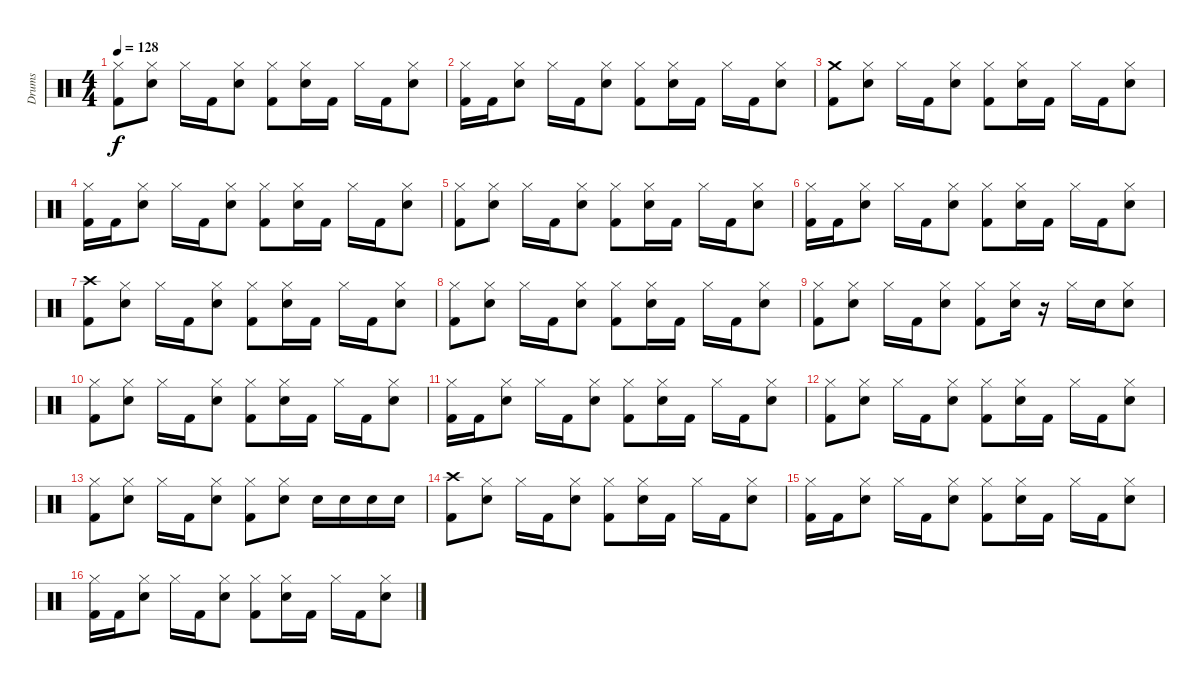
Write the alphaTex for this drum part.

\track ("Drums" "Drums") {instrument percussion}
\staff {score}
\articulation defaults
\ts (4 4)
\tempo 128
\clef neutral
\ks c
("Kick (hit) 2" "Hi-Hat (closed)").8{dy f} ("Snare (hit) 2" "Hi-Hat (closed)").8 "Hi-Hat (closed)".16 "Kick (hit) 2".16 ("Snare (hit) 2" "Hi-Hat (closed)").8 ("Kick (hit) 2" "Hi-Hat (closed)").8 ("Snare (hit) 2" "Hi-Hat (closed)").16 "Kick (hit) 2".16 "Hi-Hat (closed)".16 "Kick (hit) 2".16 ("Snare (hit) 2" "Hi-Hat (closed)").8 |
("Kick (hit) 2" "Hi-Hat (closed)").16 "Kick (hit) 2".16 ("Snare (hit) 2" "Hi-Hat (closed)").8 "Hi-Hat (closed)".16 "Kick (hit) 2".16 ("Snare (hit) 2" "Hi-Hat (closed)").8 ("Kick (hit) 2" "Hi-Hat (closed)").8 ("Snare (hit) 2" "Hi-Hat (closed)").16 "Kick (hit) 2".16 "Hi-Hat (closed)".16 "Kick (hit) 2".16 ("Snare (hit) 2" "Hi-Hat (closed)").8 |
("Kick (hit) 2" "Crash medium (hit)").8 ("Snare (hit) 2" "Hi-Hat (closed)").8 "Hi-Hat (closed)".16 "Kick (hit) 2".16 ("Snare (hit) 2" "Hi-Hat (closed)").8 ("Kick (hit) 2" "Hi-Hat (closed)").8 ("Snare (hit) 2" "Hi-Hat (closed)").16 "Kick (hit) 2".16 "Hi-Hat (closed)".16 "Kick (hit) 2".16 ("Snare (hit) 2" "Hi-Hat (closed)").8 |
("Kick (hit) 2" "Hi-Hat (closed)").16 "Kick (hit) 2".16 ("Snare (hit) 2" "Hi-Hat (closed)").8 "Hi-Hat (closed)".16 "Kick (hit) 2".16 ("Snare (hit) 2" "Hi-Hat (closed)").8 ("Kick (hit) 2" "Hi-Hat (closed)").8 ("Snare (hit) 2" "Hi-Hat (closed)").16 "Kick (hit) 2".16 "Hi-Hat (closed)".16 "Kick (hit) 2".16 ("Snare (hit) 2" "Hi-Hat (closed)").8 |
("Kick (hit) 2" "Hi-Hat (closed)").8 ("Snare (hit) 2" "Hi-Hat (closed)").8 "Hi-Hat (closed)".16 "Kick (hit) 2".16 ("Snare (hit) 2" "Hi-Hat (closed)").8 ("Kick (hit) 2" "Hi-Hat (closed)").8 ("Snare (hit) 2" "Hi-Hat (closed)").16 "Kick (hit) 2".16 "Hi-Hat (closed)".16 "Kick (hit) 2".16 ("Snare (hit) 2" "Hi-Hat (closed)").8 |
("Kick (hit) 2" "Hi-Hat (closed)").16 "Kick (hit) 2".16 ("Snare (hit) 2" "Hi-Hat (closed)").8 "Hi-Hat (closed)".16 "Kick (hit) 2".16 ("Snare (hit) 2" "Hi-Hat (closed)").8 ("Kick (hit) 2" "Hi-Hat (closed)").8 ("Snare (hit) 2" "Hi-Hat (closed)").16 "Kick (hit) 2".16 "Hi-Hat (closed)".16 "Kick (hit) 2".16 ("Snare (hit) 2" "Hi-Hat (closed)").8 |
("Kick (hit) 2" "Crash high (hit)").8 ("Snare (hit) 2" "Hi-Hat (closed)").8 "Hi-Hat (closed)".16 "Kick (hit) 2".16 ("Snare (hit) 2" "Hi-Hat (closed)").8 ("Kick (hit) 2" "Hi-Hat (closed)").8 ("Snare (hit) 2" "Hi-Hat (closed)").16 "Kick (hit) 2".16 "Hi-Hat (closed)".16 "Kick (hit) 2".16 ("Snare (hit) 2" "Hi-Hat (closed)").8 |
("Kick (hit) 2" "Hi-Hat (closed)").8 ("Snare (hit) 2" "Hi-Hat (closed)").8 "Hi-Hat (closed)".16 "Kick (hit) 2".16 ("Snare (hit) 2" "Hi-Hat (closed)").8 ("Kick (hit) 2" "Hi-Hat (closed)").8 ("Snare (hit) 2" "Hi-Hat (closed)").16 "Kick (hit) 2".16 "Hi-Hat (closed)".16 "Kick (hit) 2".16 ("Snare (hit) 2" "Hi-Hat (closed)").8 |
("Kick (hit) 2" "Hi-Hat (closed)").8 ("Snare (hit) 2" "Hi-Hat (closed)").8 "Hi-Hat (closed)".16 "Kick (hit) 2".16 ("Snare (hit) 2" "Hi-Hat (closed)").8 ("Kick (hit) 2" "Hi-Hat (closed)").8 ("Snare (hit) 2" "Hi-Hat (closed)").16 r.16 "Hi-Hat (closed)".16 "Snare (hit) 2".16 ("Snare (hit) 2" "Hi-Hat (closed)").8 |
("Kick (hit) 2" "Hi-Hat (closed)").8 ("Snare (hit) 2" "Hi-Hat (closed)").8 "Hi-Hat (closed)".16 "Kick (hit) 2".16 ("Snare (hit) 2" "Hi-Hat (closed)").8 ("Kick (hit) 2" "Hi-Hat (closed)").8 ("Snare (hit) 2" "Hi-Hat (closed)").16 "Kick (hit) 2".16 "Hi-Hat (closed)".16 "Kick (hit) 2".16 ("Snare (hit) 2" "Hi-Hat (closed)").8 |
("Kick (hit) 2" "Hi-Hat (closed)").16 "Kick (hit) 2".16 ("Snare (hit) 2" "Hi-Hat (closed)").8 "Hi-Hat (closed)".16 "Kick (hit) 2".16 ("Snare (hit) 2" "Hi-Hat (closed)").8 ("Kick (hit) 2" "Hi-Hat (closed)").8 ("Snare (hit) 2" "Hi-Hat (closed)").16 "Kick (hit) 2".16 "Hi-Hat (closed)".16 "Kick (hit) 2".16 ("Snare (hit) 2" "Hi-Hat (closed)").8 |
("Kick (hit) 2" "Hi-Hat (closed)").8 ("Snare (hit) 2" "Hi-Hat (closed)").8 "Hi-Hat (closed)".16 "Kick (hit) 2".16 ("Snare (hit) 2" "Hi-Hat (closed)").8 ("Kick (hit) 2" "Hi-Hat (closed)").8 ("Snare (hit) 2" "Hi-Hat (closed)").16 "Kick (hit) 2".16 "Hi-Hat (closed)".16 "Kick (hit) 2".16 ("Snare (hit) 2" "Hi-Hat (closed)").8 |
("Kick (hit) 2" "Hi-Hat (closed)").8 ("Snare (hit) 2" "Hi-Hat (closed)").8 "Hi-Hat (closed)".16 "Kick (hit) 2".16 ("Snare (hit) 2" "Hi-Hat (closed)").8 ("Kick (hit) 2" "Hi-Hat (closed)").8 ("Snare (hit) 2" "Hi-Hat (closed)").8 "Snare (hit) 2".16 "Snare (hit) 2".16 "Snare (hit) 2".16 "Snare (hit) 2".16 |
("Kick (hit) 2" "Crash high (hit)").8 ("Snare (hit) 2" "Hi-Hat (closed)").8 "Hi-Hat (closed)".16 "Kick (hit) 2".16 ("Snare (hit) 2" "Hi-Hat (closed)").8 ("Kick (hit) 2" "Hi-Hat (closed)").8 ("Snare (hit) 2" "Hi-Hat (closed)").16 "Kick (hit) 2".16 "Hi-Hat (closed)".16 "Kick (hit) 2".16 ("Snare (hit) 2" "Hi-Hat (closed)").8 |
("Kick (hit) 2" "Hi-Hat (closed)").16 "Kick (hit) 2".16 ("Snare (hit) 2" "Hi-Hat (closed)").8 "Hi-Hat (closed)".16 "Kick (hit) 2".16 ("Snare (hit) 2" "Hi-Hat (closed)").8 ("Kick (hit) 2" "Hi-Hat (closed)").8 ("Snare (hit) 2" "Hi-Hat (closed)").16 "Kick (hit) 2".16 "Hi-Hat (closed)".16 "Kick (hit) 2".16 ("Snare (hit) 2" "Hi-Hat (closed)").8 |
("Kick (hit) 2" "Hi-Hat (closed)").16 "Kick (hit) 2".16 ("Snare (hit) 2" "Hi-Hat (closed)").8 "Hi-Hat (closed)".16 "Kick (hit) 2".16 ("Snare (hit) 2" "Hi-Hat (closed)").8 ("Kick (hit) 2" "Hi-Hat (closed)").8 ("Snare (hit) 2" "Hi-Hat (closed)").16 "Kick (hit) 2".16 "Hi-Hat (closed)".16 "Kick (hit) 2".16 ("Snare (hit) 2" "Hi-Hat (closed)").8
